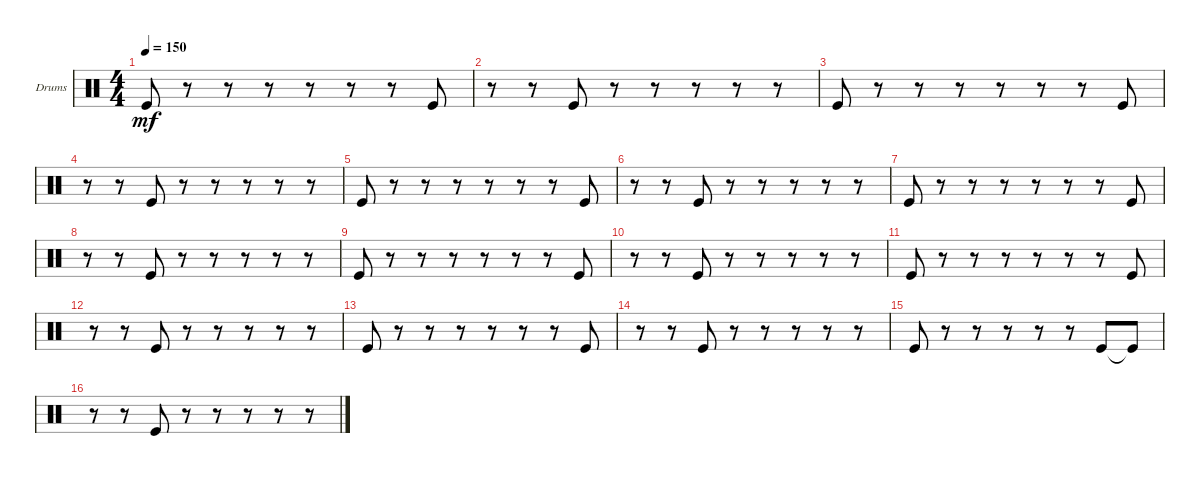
\bracketExtendMode groupsimilarinstruments
\firstSystemTrackNameOrientation horizontal
\otherSystemsTrackNameOrientation horizontal
\track ("Drumkit Kick" "Drums ") {instrument percussion}
\staff {score}
\articulation defaults
\ts (4 4)
\tempo 150
\clef neutral
\scale
0.333333
\ks c "Kick (hit)".8{dy mf}
r.8 r.8 r.8 r.8 r.8 r.8 "Kick (hit)".8 |
\scale
0.333333 r.8 r.8 "Kick (hit)".8 r.8 r.8 r.8 r.8 r.8 |
\scale
0.333333 "Kick (hit)".8 r.8 r.8 r.8 r.8 r.8 r.8 "Kick (hit)".8 |
\scale
0.333333 r.8 r.8 "Kick (hit)".8 r.8 r.8 r.8 r.8 r.8 |
\scale
0.333333 "Kick (hit)".8 r.8 r.8 r.8 r.8 r.8 r.8 "Kick (hit)".8 |
\scale
0.333333 r.8 r.8 "Kick (hit)".8 r.8 r.8 r.8 r.8 r.8 |
\scale
0.333333 "Kick (hit)".8 r.8 r.8 r.8 r.8 r.8 r.8 "Kick (hit)".8 |
\scale
0.333333 r.8 r.8 "Kick (hit)".8 r.8 r.8 r.8 r.8 r.8 |
\scale
0.333333 "Kick (hit)".8 r.8 r.8 r.8 r.8 r.8 r.8 "Kick (hit)".8 |
\scale
0.333333 r.8 r.8 "Kick (hit)".8 r.8 r.8 r.8 r.8 r.8 |
\scale
0.333333 "Kick (hit)".8 r.8 r.8 r.8 r.8 r.8 r.8 "Kick (hit)".8 |
\scale
0.333333 r.8 r.8 "Kick (hit)".8 r.8 r.8 r.8 r.8 r.8 |
\scale
0.333333 "Kick (hit)".8 r.8 r.8 r.8 r.8 r.8 r.8 "Kick (hit)".8 |
\scale
0.333333 r.8 r.8 "Kick (hit)".8 r.8 r.8 r.8 r.8 r.8 |
\scale
0.333333 "Kick (hit)".8 r.8 r.8 r.8 r.8 r.8 "Kick (hit)".8 "Kick (hit)"{t}.8 |
\scale
0.333333 r.8 r.8 "Kick (hit)".8 r.8 r.8 r.8 r.8 r.8
